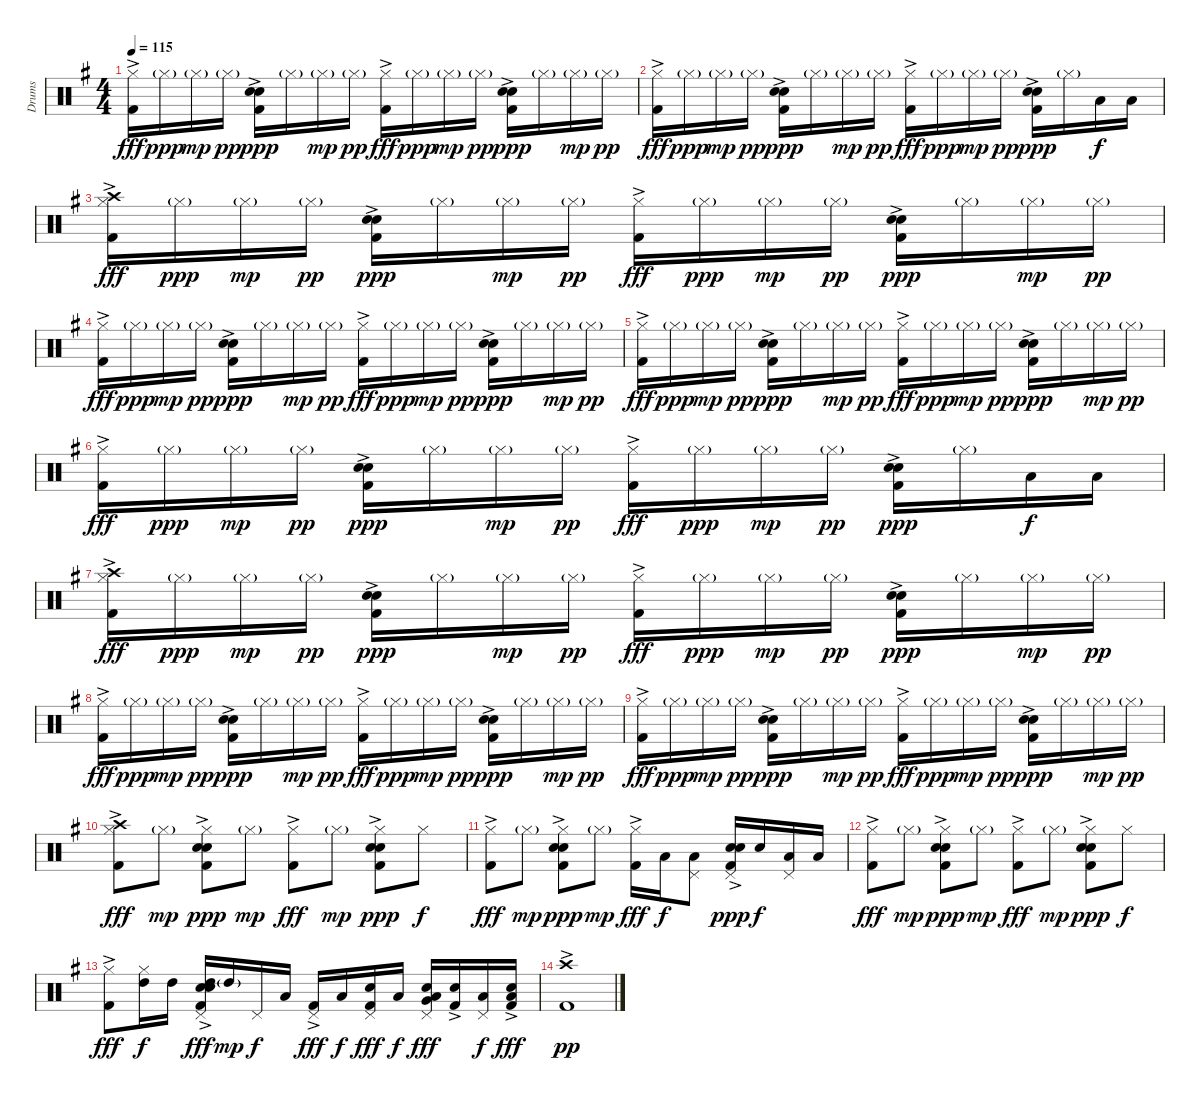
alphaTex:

\track ("Drums" "Drums") {instrument percussion}
\staff {score}
\articulation defaults
\ts (4 4)
\tempo 115
\clef neutral
\ks g
("Kick (hit) 2"{ac} "Hi-Hat (closed)").16{dy fff} "Hi-Hat (closed)"{g}.16{dy ppp} "Hi-Hat (closed)"{g}.16{dy mp} "Hi-Hat (closed)"{g}.16{dy pp} ("Kick (hit) 2"{ac} "Snare (hit) 2"{ac} "Electric Snare (hit)").16{dy ppp} "Hi-Hat (closed)"{g}.16 "Hi-Hat (closed)"{g}.16{dy mp} "Hi-Hat (closed)"{g}.16{dy pp} ("Kick (hit) 2"{ac} "Hi-Hat (closed)").16{dy fff} "Hi-Hat (closed)"{g}.16{dy ppp} "Hi-Hat (closed)"{g}.16{dy mp} "Hi-Hat (closed)"{g}.16{dy pp} ("Kick (hit) 2"{ac} "Snare (hit) 2"{ac} "Electric Snare (hit)").16{dy ppp} "Hi-Hat (closed)"{g}.16 "Hi-Hat (closed)"{g}.16{dy mp} "Hi-Hat (closed)"{g}.16{dy pp} |
("Kick (hit) 2"{ac} "Hi-Hat (closed)").16{dy fff} "Hi-Hat (closed)"{g}.16{dy ppp} "Hi-Hat (closed)"{g}.16{dy mp} "Hi-Hat (closed)"{g}.16{dy pp} ("Kick (hit) 2"{ac} "Snare (hit) 2"{ac} "Electric Snare (hit)").16{dy ppp} "Hi-Hat (closed)"{g}.16 "Hi-Hat (closed)"{g}.16{dy mp} "Hi-Hat (closed)"{g}.16{dy pp} ("Kick (hit) 2"{ac} "Hi-Hat (closed)").16{dy fff} "Hi-Hat (closed)"{g}.16{dy ppp} "Hi-Hat (closed)"{g}.16{dy mp} "Hi-Hat (closed)"{g}.16{dy pp} ("Kick (hit) 2"{ac} "Snare (hit) 2"{ac} "Electric Snare (hit)").16{dy ppp} "Hi-Hat (closed)"{g}.16 "Low Tom (hit)".16{dy f} "Low Floor Tom (hit)".16 |
("Kick (hit) 2"{ac} "Crash high (hit)" "Hi-Hat (closed)").16{dy fff} "Hi-Hat (closed)"{g}.16{dy ppp} "Hi-Hat (closed)"{g}.16{dy mp} "Hi-Hat (closed)"{g}.16{dy pp} ("Kick (hit) 2"{ac} "Snare (hit) 2"{ac} "Electric Snare (hit)").16{dy ppp} "Hi-Hat (closed)"{g}.16 "Hi-Hat (closed)"{g}.16{dy mp} "Hi-Hat (closed)"{g}.16{dy pp} ("Kick (hit) 2"{ac} "Hi-Hat (closed)").16{dy fff} "Hi-Hat (closed)"{g}.16{dy ppp} "Hi-Hat (closed)"{g}.16{dy mp} "Hi-Hat (closed)"{g}.16{dy pp} ("Kick (hit) 2"{ac} "Snare (hit) 2"{ac} "Electric Snare (hit)").16{dy ppp} "Hi-Hat (closed)"{g}.16 "Hi-Hat (closed)"{g}.16{dy mp} "Hi-Hat (closed)"{g}.16{dy pp} |
("Kick (hit) 2"{ac} "Hi-Hat (closed)").16{dy fff} "Hi-Hat (closed)"{g}.16{dy ppp} "Hi-Hat (closed)"{g}.16{dy mp} "Hi-Hat (closed)"{g}.16{dy pp} ("Kick (hit) 2"{ac} "Snare (hit) 2"{ac} "Electric Snare (hit)").16{dy ppp} "Hi-Hat (closed)"{g}.16 "Hi-Hat (closed)"{g}.16{dy mp} "Hi-Hat (closed)"{g}.16{dy pp} ("Kick (hit) 2"{ac} "Hi-Hat (closed)").16{dy fff} "Hi-Hat (closed)"{g}.16{dy ppp} "Hi-Hat (closed)"{g}.16{dy mp} "Hi-Hat (closed)"{g}.16{dy pp} ("Kick (hit) 2"{ac} "Snare (hit) 2"{ac} "Electric Snare (hit)").16{dy ppp} "Hi-Hat (closed)"{g}.16 "Hi-Hat (closed)"{g}.16{dy mp} "Hi-Hat (closed)"{g}.16{dy pp} |
("Kick (hit) 2"{ac} "Hi-Hat (closed)").16{dy fff} "Hi-Hat (closed)"{g}.16{dy ppp} "Hi-Hat (closed)"{g}.16{dy mp} "Hi-Hat (closed)"{g}.16{dy pp} ("Kick (hit) 2"{ac} "Snare (hit) 2"{ac} "Electric Snare (hit)").16{dy ppp} "Hi-Hat (closed)"{g}.16 "Hi-Hat (closed)"{g}.16{dy mp} "Hi-Hat (closed)"{g}.16{dy pp} ("Kick (hit) 2"{ac} "Hi-Hat (closed)").16{dy fff} "Hi-Hat (closed)"{g}.16{dy ppp} "Hi-Hat (closed)"{g}.16{dy mp} "Hi-Hat (closed)"{g}.16{dy pp} ("Kick (hit) 2"{ac} "Snare (hit) 2"{ac} "Electric Snare (hit)").16{dy ppp} "Hi-Hat (closed)"{g}.16 "Hi-Hat (closed)"{g}.16{dy mp} "Hi-Hat (closed)"{g}.16{dy pp} |
("Kick (hit) 2"{ac} "Hi-Hat (closed)").16{dy fff} "Hi-Hat (closed)"{g}.16{dy ppp} "Hi-Hat (closed)"{g}.16{dy mp} "Hi-Hat (closed)"{g}.16{dy pp} ("Kick (hit) 2"{ac} "Snare (hit) 2"{ac} "Electric Snare (hit)").16{dy ppp} "Hi-Hat (closed)"{g}.16 "Hi-Hat (closed)"{g}.16{dy mp} "Hi-Hat (closed)"{g}.16{dy pp} ("Kick (hit) 2"{ac} "Hi-Hat (closed)").16{dy fff} "Hi-Hat (closed)"{g}.16{dy ppp} "Hi-Hat (closed)"{g}.16{dy mp} "Hi-Hat (closed)"{g}.16{dy pp} ("Kick (hit) 2"{ac} "Snare (hit) 2"{ac} "Electric Snare (hit)").16{dy ppp} "Hi-Hat (closed)"{g}.16 "Low Tom (hit)".16{dy f} "Low Floor Tom (hit)".16 |
("Kick (hit) 2"{ac} "Crash high (hit)" "Hi-Hat (closed)").16{dy fff} "Hi-Hat (closed)"{g}.16{dy ppp} "Hi-Hat (closed)"{g}.16{dy mp} "Hi-Hat (closed)"{g}.16{dy pp} ("Kick (hit) 2"{ac} "Snare (hit) 2"{ac} "Electric Snare (hit)").16{dy ppp} "Hi-Hat (closed)"{g}.16 "Hi-Hat (closed)"{g}.16{dy mp} "Hi-Hat (closed)"{g}.16{dy pp} ("Kick (hit) 2"{ac} "Hi-Hat (closed)").16{dy fff} "Hi-Hat (closed)"{g}.16{dy ppp} "Hi-Hat (closed)"{g}.16{dy mp} "Hi-Hat (closed)"{g}.16{dy pp} ("Kick (hit) 2"{ac} "Snare (hit) 2"{ac} "Electric Snare (hit)").16{dy ppp} "Hi-Hat (closed)"{g}.16 "Hi-Hat (closed)"{g}.16{dy mp} "Hi-Hat (closed)"{g}.16{dy pp} |
("Kick (hit) 2"{ac} "Hi-Hat (closed)").16{dy fff} "Hi-Hat (closed)"{g}.16{dy ppp} "Hi-Hat (closed)"{g}.16{dy mp} "Hi-Hat (closed)"{g}.16{dy pp} ("Kick (hit) 2"{ac} "Snare (hit) 2"{ac} "Electric Snare (hit)").16{dy ppp} "Hi-Hat (closed)"{g}.16 "Hi-Hat (closed)"{g}.16{dy mp} "Hi-Hat (closed)"{g}.16{dy pp} ("Kick (hit) 2"{ac} "Hi-Hat (closed)").16{dy fff} "Hi-Hat (closed)"{g}.16{dy ppp} "Hi-Hat (closed)"{g}.16{dy mp} "Hi-Hat (closed)"{g}.16{dy pp} ("Kick (hit) 2"{ac} "Snare (hit) 2"{ac} "Electric Snare (hit)").16{dy ppp} "Hi-Hat (closed)"{g}.16 "Hi-Hat (closed)"{g}.16{dy mp} "Hi-Hat (closed)"{g}.16{dy pp} |
("Kick (hit) 2"{ac} "Hi-Hat (closed)").16{dy fff} "Hi-Hat (closed)"{g}.16{dy ppp} "Hi-Hat (closed)"{g}.16{dy mp} "Hi-Hat (closed)"{g}.16{dy pp} ("Kick (hit) 2"{ac} "Snare (hit) 2"{ac} "Electric Snare (hit)").16{dy ppp} "Hi-Hat (closed)"{g}.16 "Hi-Hat (closed)"{g}.16{dy mp} "Hi-Hat (closed)"{g}.16{dy pp} ("Kick (hit) 2"{ac} "Hi-Hat (closed)").16{dy fff} "Hi-Hat (closed)"{g}.16{dy ppp} "Hi-Hat (closed)"{g}.16{dy mp} "Hi-Hat (closed)"{g}.16{dy pp} ("Kick (hit) 2"{ac} "Snare (hit) 2"{ac} "Electric Snare (hit)").16{dy ppp} "Hi-Hat (closed)"{g}.16 "Hi-Hat (closed)"{g}.16{dy mp} "Hi-Hat (closed)"{g}.16{dy pp} |
("Kick (hit) 2"{ac} "Crash high (hit)" "Hi-Hat (closed)").8{dy fff} "Hi-Hat (closed)"{g}.8{dy mp} ("Kick (hit) 2"{ac} "Snare (hit) 2"{ac} "Electric Snare (hit)" "Hi-Hat (closed)").8{dy ppp} "Hi-Hat (closed)"{g}.8{dy mp} ("Kick (hit) 2"{ac} "Hi-Hat (closed)").8{dy fff} "Hi-Hat (closed)"{g}.8{dy mp} ("Kick (hit) 2"{ac} "Snare (hit) 2"{ac} "Electric Snare (hit)" "Hi-Hat (closed)").8{dy ppp} "Hi-Hat (closed)".8{dy f} |
("Kick (hit) 2"{ac} "Hi-Hat (closed)").8{dy fff} "Hi-Hat (closed)"{g}.8{dy mp} ("Kick (hit) 2"{ac} "Snare (hit) 2"{ac} "Electric Snare (hit)" "Hi-Hat (closed)").8{dy ppp} "Hi-Hat (closed)"{g}.8{dy mp} ("Kick (hit) 2"{ac} "Hi-Hat (closed)").16{dy fff} "Low Floor Tom (hit)".16{dy f} ("Low Tom (hit)" "Pedal Hi-Hat (hit)").8 ("Kick (hit) 2"{ac} "Snare (hit) 2"{ac} "Electric Snare (hit)" "Pedal Hi-Hat (hit)").16{dy ppp} "Snare (hit) 2".16{dy f} ("Low Tom (hit)" "Pedal Hi-Hat (hit)").16 "Low Floor Tom (hit)".16 |
("Kick (hit) 2"{ac} "Hi-Hat (closed)").8{dy fff} "Hi-Hat (closed)"{g}.8{dy mp} ("Kick (hit) 2"{ac} "Snare (hit) 2"{ac} "Electric Snare (hit)" "Hi-Hat (closed)").8{dy ppp} "Hi-Hat (closed)"{g}.8{dy mp} ("Kick (hit) 2"{ac} "Hi-Hat (closed)").8{dy fff} "Hi-Hat (closed)"{g}.8{dy mp} ("Kick (hit) 2"{ac} "Snare (hit) 2"{ac} "Electric Snare (hit)" "Hi-Hat (closed)").8{dy ppp} "Hi-Hat (closed)".8{dy f} |
("Kick (hit) 2"{ac} "Hi-Hat (closed)").8{dy fff} ("High Tom (hit)" "Hi-Hat (closed)").16{dy f} "High Tom (hit)".16 ("Kick (hit) 2"{ac} "Snare (hit) 2"{ac} "Electric Snare (hit)" "High Tom (hit)" "Pedal Hi-Hat (hit)").16{dy fff} "High Tom (hit)"{g}.16{dy mp} "Pedal Hi-Hat (hit)".16{dy f} "Low Tom (hit)".16 ("Kick (hit) 2"{ac} "Pedal Hi-Hat (hit)").16{dy fff} "Low Tom (hit)".16{dy f} ("Kick (hit) 2" "Snare (hit) 2" "Pedal Hi-Hat (hit)").16{dy fff} "Low Tom (hit)".16{dy f} ("Snare (hit) 2" "Low Floor Tom (hit)" "Very Low Tom (hit)" "Pedal Hi-Hat (hit)").16{dy fff} ("Kick (hit) 2"{ac} "Snare (hit) 2").16 ("Low Floor Tom (hit)" "Pedal Hi-Hat (hit)").16{dy f} ("Kick (hit) 2"{ac} "Snare (hit) 2" "Low Floor Tom (hit)").16{dy fff} |
("Kick (hit) 2"{ac} "Crash high (hit)").1{dy pp}
